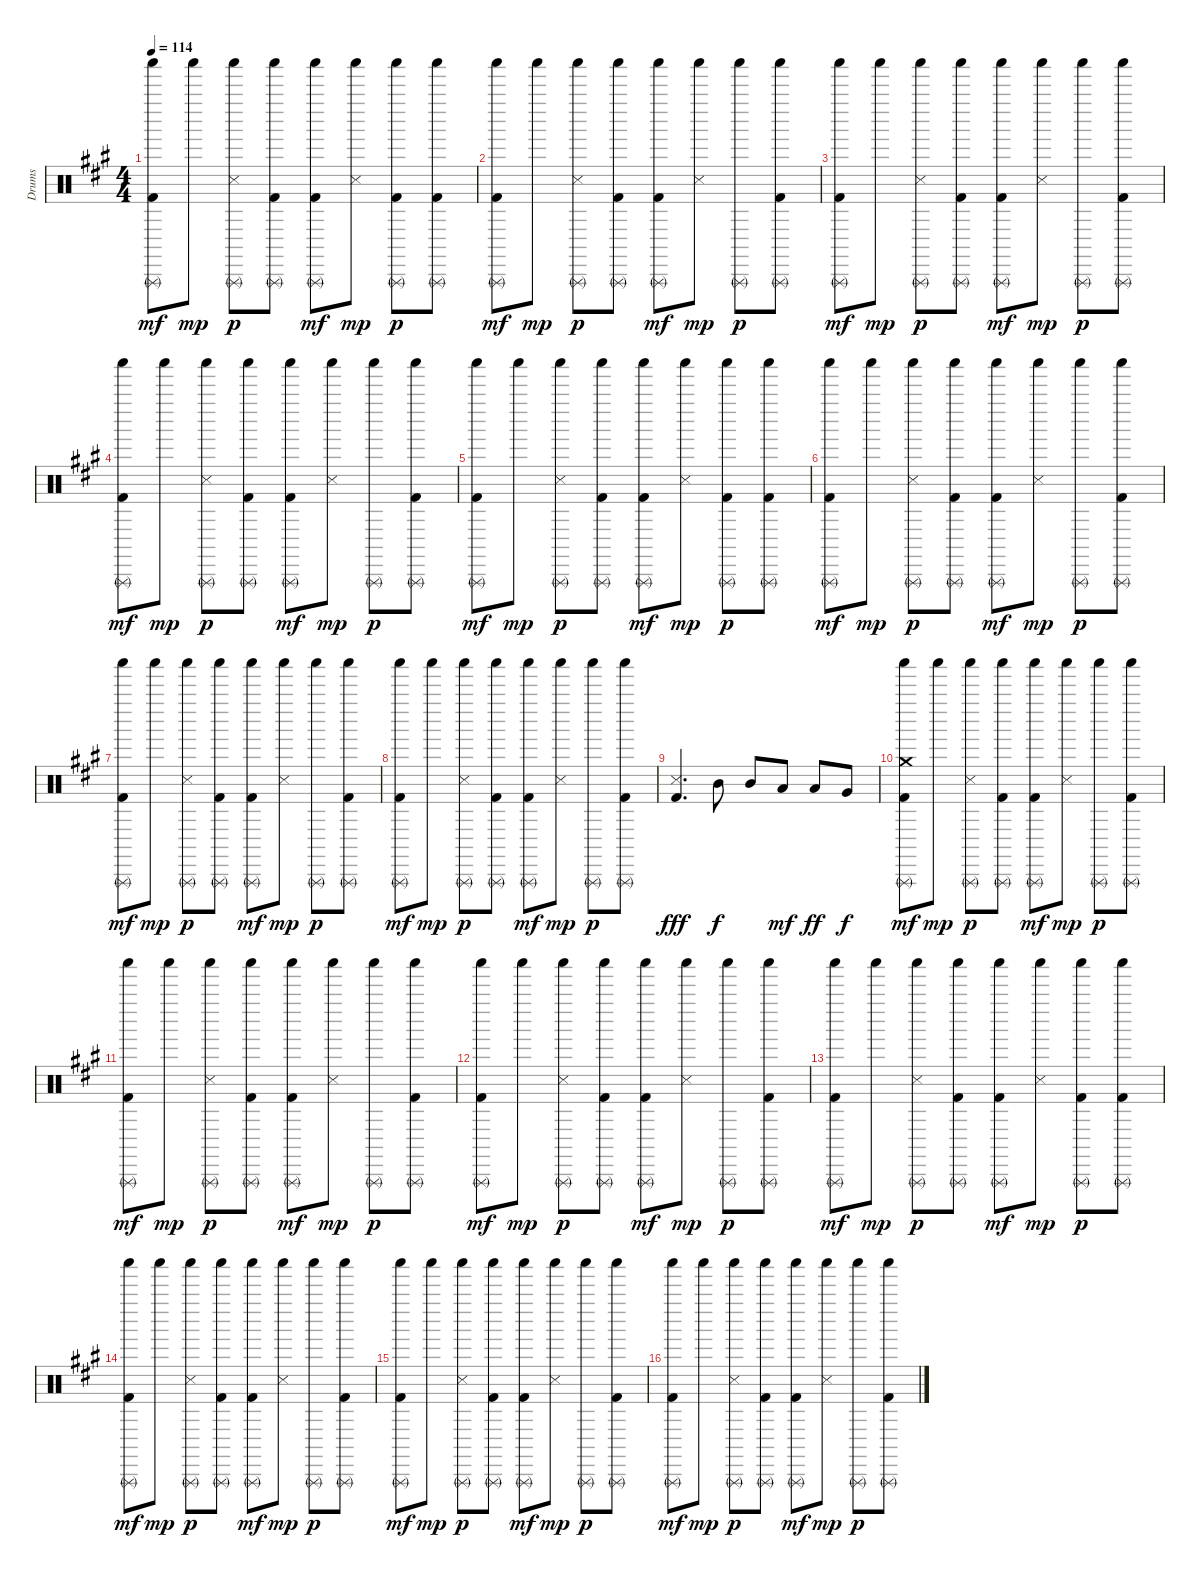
\track ("Drums" "Drums") {instrument percussion}
\staff {score}
\articulation defaults
\ts (4 4)
\tempo 114
\clef neutral
\ks a
("Kick (hit) 2" "Triangle (rnute)" "Shaker (hit)").8{dy mf} "Shaker (hit)".8{dy mp} ("Snare (side stick) 3" "Triangle (rnute)" "Shaker (hit)").8{dy p} ("Kick (hit) 2" "Triangle (rnute)" "Shaker (hit)").8 ("Kick (hit) 2" "Triangle (rnute)" "Shaker (hit)").8{dy mf} ("Snare (side stick) 3" "Shaker (hit)").8{dy mp} ("Kick (hit) 2" "Triangle (rnute)" "Shaker (hit)").8{dy p} ("Kick (hit) 2" "Triangle (rnute)" "Shaker (hit)").8 |
("Kick (hit) 2" "Triangle (rnute)" "Shaker (hit)").8{dy mf} "Shaker (hit)".8{dy mp} ("Snare (side stick) 3" "Triangle (rnute)" "Shaker (hit)").8{dy p} ("Kick (hit) 2" "Triangle (rnute)" "Shaker (hit)").8 ("Kick (hit) 2" "Triangle (rnute)" "Shaker (hit)").8{dy mf} ("Snare (side stick) 3" "Shaker (hit)").8{dy mp} ("Triangle (rnute)" "Shaker (hit)").8{dy p} ("Kick (hit) 2" "Triangle (rnute)" "Shaker (hit)").8 |
("Kick (hit) 2" "Triangle (rnute)" "Shaker (hit)").8{dy mf} "Shaker (hit)".8{dy mp} ("Snare (side stick) 3" "Triangle (rnute)" "Shaker (hit)").8{dy p} ("Kick (hit) 2" "Triangle (rnute)" "Shaker (hit)").8 ("Kick (hit) 2" "Triangle (rnute)" "Shaker (hit)").8{dy mf} ("Snare (side stick) 3" "Shaker (hit)").8{dy mp} ("Triangle (rnute)" "Shaker (hit)").8{dy p} ("Kick (hit) 2" "Triangle (rnute)" "Shaker (hit)").8 |
("Kick (hit) 2" "Triangle (rnute)" "Shaker (hit)").8{dy mf} "Shaker (hit)".8{dy mp} ("Snare (side stick) 3" "Triangle (rnute)" "Shaker (hit)").8{dy p} ("Kick (hit) 2" "Triangle (rnute)" "Shaker (hit)").8 ("Kick (hit) 2" "Triangle (rnute)" "Shaker (hit)").8{dy mf} ("Snare (side stick) 3" "Shaker (hit)").8{dy mp} ("Triangle (rnute)" "Shaker (hit)").8{dy p} ("Kick (hit) 2" "Triangle (rnute)" "Shaker (hit)").8 |
("Kick (hit) 2" "Triangle (rnute)" "Shaker (hit)").8{dy mf} "Shaker (hit)".8{dy mp} ("Snare (side stick) 3" "Triangle (rnute)" "Shaker (hit)").8{dy p} ("Kick (hit) 2" "Triangle (rnute)" "Shaker (hit)").8 ("Kick (hit) 2" "Triangle (rnute)" "Shaker (hit)").8{dy mf} ("Snare (side stick) 3" "Shaker (hit)").8{dy mp} ("Kick (hit) 2" "Triangle (rnute)" "Shaker (hit)").8{dy p} ("Kick (hit) 2" "Triangle (rnute)" "Shaker (hit)").8 |
("Kick (hit) 2" "Triangle (rnute)" "Shaker (hit)").8{dy mf} "Shaker (hit)".8{dy mp} ("Snare (side stick) 3" "Triangle (rnute)" "Shaker (hit)").8{dy p} ("Kick (hit) 2" "Triangle (rnute)" "Shaker (hit)").8 ("Kick (hit) 2" "Triangle (rnute)" "Shaker (hit)").8{dy mf} ("Snare (side stick) 3" "Shaker (hit)").8{dy mp} ("Triangle (rnute)" "Shaker (hit)").8{dy p} ("Kick (hit) 2" "Triangle (rnute)" "Shaker (hit)").8 |
("Kick (hit) 2" "Triangle (rnute)" "Shaker (hit)").8{dy mf} "Shaker (hit)".8{dy mp} ("Snare (side stick) 3" "Triangle (rnute)" "Shaker (hit)").8{dy p} ("Kick (hit) 2" "Triangle (rnute)" "Shaker (hit)").8 ("Kick (hit) 2" "Triangle (rnute)" "Shaker (hit)").8{dy mf} ("Snare (side stick) 3" "Shaker (hit)").8{dy mp} ("Triangle (rnute)" "Shaker (hit)").8{dy p} ("Kick (hit) 2" "Triangle (rnute)" "Shaker (hit)").8 |
("Kick (hit) 2" "Triangle (rnute)" "Shaker (hit)").8{dy mf} "Shaker (hit)".8{dy mp} ("Snare (side stick) 3" "Triangle (rnute)" "Shaker (hit)").8{dy p} ("Kick (hit) 2" "Triangle (rnute)" "Shaker (hit)").8 ("Kick (hit) 2" "Triangle (rnute)" "Shaker (hit)").8{dy mf} ("Snare (side stick) 3" "Shaker (hit)").8{dy mp} ("Triangle (rnute)" "Shaker (hit)").8{dy p} ("Kick (hit) 2" "Triangle (rnute)" "Shaker (hit)").8 |
("Kick (hit) 2" "Snare (side stick) 3").4{d dy fff} "Mid Tom (hit)".8{dy f} "Mid Tom (hit)".8 "Low Tom (hit)".8{dy mf} "Low Floor Tom (hit)".8{dy ff} "Very Low Tom (hit)".8{dy f} |
("Kick (hit) 2" "Crash medium (hit)" "Triangle (rnute)" "Shaker (hit)").8{dy mf} "Shaker (hit)".8{dy mp} ("Snare (side stick) 3" "Triangle (rnute)" "Shaker (hit)").8{dy p} ("Kick (hit) 2" "Triangle (rnute)" "Shaker (hit)").8 ("Kick (hit) 2" "Triangle (rnute)" "Shaker (hit)").8{dy mf} ("Snare (side stick) 3" "Shaker (hit)").8{dy mp} ("Triangle (rnute)" "Shaker (hit)").8{dy p} ("Kick (hit) 2" "Triangle (rnute)" "Shaker (hit)").8 |
("Kick (hit) 2" "Triangle (rnute)" "Shaker (hit)").8{dy mf} "Shaker (hit)".8{dy mp} ("Snare (side stick) 3" "Triangle (rnute)" "Shaker (hit)").8{dy p} ("Kick (hit) 2" "Triangle (rnute)" "Shaker (hit)").8 ("Kick (hit) 2" "Triangle (rnute)" "Shaker (hit)").8{dy mf} ("Snare (side stick) 3" "Shaker (hit)").8{dy mp} ("Triangle (rnute)" "Shaker (hit)").8{dy p} ("Kick (hit) 2" "Triangle (rnute)" "Shaker (hit)").8 |
("Kick (hit) 2" "Triangle (rnute)" "Shaker (hit)").8{dy mf} "Shaker (hit)".8{dy mp} ("Snare (side stick) 3" "Triangle (rnute)" "Shaker (hit)").8{dy p} ("Kick (hit) 2" "Triangle (rnute)" "Shaker (hit)").8 ("Kick (hit) 2" "Triangle (rnute)" "Shaker (hit)").8{dy mf} ("Snare (side stick) 3" "Shaker (hit)").8{dy mp} ("Triangle (rnute)" "Shaker (hit)").8{dy p} ("Kick (hit) 2" "Triangle (rnute)" "Shaker (hit)").8 |
("Kick (hit) 2" "Triangle (rnute)" "Shaker (hit)").8{dy mf} "Shaker (hit)".8{dy mp} ("Snare (side stick) 3" "Triangle (rnute)" "Shaker (hit)").8{dy p} ("Kick (hit) 2" "Triangle (rnute)" "Shaker (hit)").8 ("Kick (hit) 2" "Triangle (rnute)" "Shaker (hit)").8{dy mf} ("Snare (side stick) 3" "Shaker (hit)").8{dy mp} ("Kick (hit) 2" "Triangle (rnute)" "Shaker (hit)").8{dy p} ("Kick (hit) 2" "Triangle (rnute)" "Shaker (hit)").8 |
("Kick (hit) 2" "Triangle (rnute)" "Shaker (hit)").8{dy mf} "Shaker (hit)".8{dy mp} ("Snare (side stick) 3" "Triangle (rnute)" "Shaker (hit)").8{dy p} ("Kick (hit) 2" "Triangle (rnute)" "Shaker (hit)").8 ("Kick (hit) 2" "Triangle (rnute)" "Shaker (hit)").8{dy mf} ("Snare (side stick) 3" "Shaker (hit)").8{dy mp} ("Triangle (rnute)" "Shaker (hit)").8{dy p} ("Kick (hit) 2" "Triangle (rnute)" "Shaker (hit)").8 |
("Kick (hit) 2" "Triangle (rnute)" "Shaker (hit)").8{dy mf} "Shaker (hit)".8{dy mp} ("Snare (side stick) 3" "Triangle (rnute)" "Shaker (hit)").8{dy p} ("Kick (hit) 2" "Triangle (rnute)" "Shaker (hit)").8 ("Kick (hit) 2" "Triangle (rnute)" "Shaker (hit)").8{dy mf} ("Snare (side stick) 3" "Shaker (hit)").8{dy mp} ("Triangle (rnute)" "Shaker (hit)").8{dy p} ("Kick (hit) 2" "Triangle (rnute)" "Shaker (hit)").8 |
("Kick (hit) 2" "Triangle (rnute)" "Shaker (hit)").8{dy mf} "Shaker (hit)".8{dy mp} ("Snare (side stick) 3" "Triangle (rnute)" "Shaker (hit)").8{dy p} ("Kick (hit) 2" "Triangle (rnute)" "Shaker (hit)").8 ("Kick (hit) 2" "Triangle (rnute)" "Shaker (hit)").8{dy mf} ("Snare (side stick) 3" "Shaker (hit)").8{dy mp} ("Triangle (rnute)" "Shaker (hit)").8{dy p} ("Kick (hit) 2" "Triangle (rnute)" "Shaker (hit)").8
